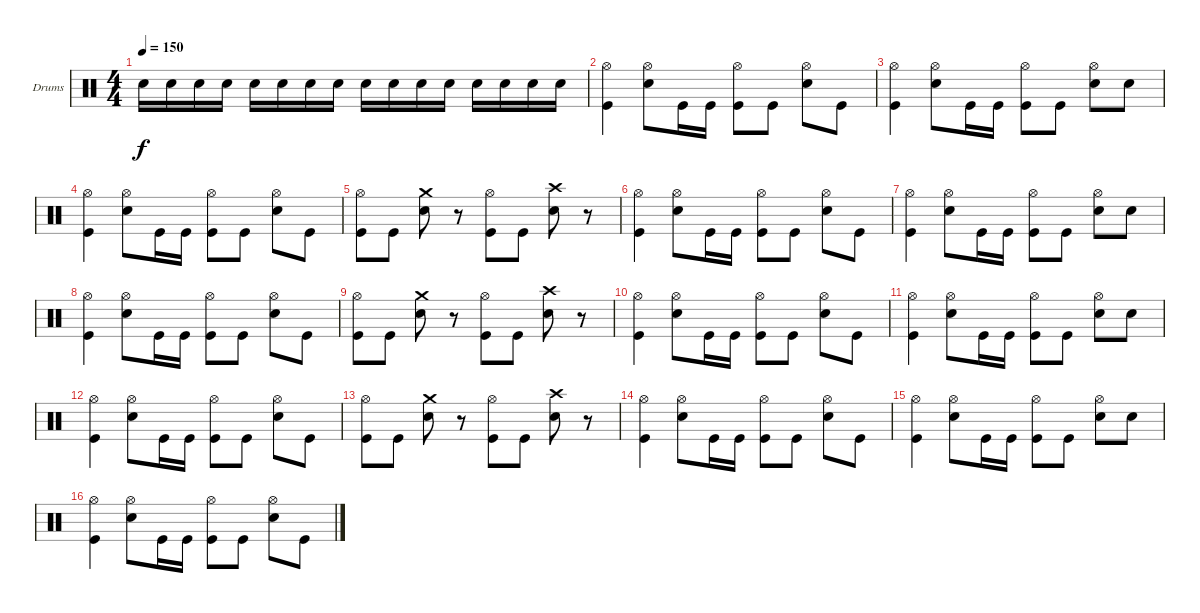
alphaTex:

\defaultSystemsLayout 4
\bracketExtendMode groupsimilarinstruments
\firstSystemTrackNameOrientation horizontal
\otherSystemsTrackNameOrientation horizontal
\track ("Drumkit" "Drums") {instrument percussion}
\staff {score}
\articulation defaults
\ts (4 4)
\tempo 150
\clef neutral
\ks c "Snare (hit) 2".16{dy f} "Snare (hit) 2".16 "Snare (hit) 2".16 "Snare (hit) 2".16 "Snare (hit) 2".16 "Snare (hit) 2".16 "Snare (hit) 2".16 "Snare (hit) 2".16 "Snare (hit) 2".16 "Snare (hit) 2".16 "Snare (hit) 2".16 "Snare (hit) 2".16 "Snare (hit) 2".16 "Snare (hit) 2".16 "Snare (hit) 2".16 "Snare (hit) 2".16
|
("Hi-Hat (open)" "Kick (hit)").4 ("Snare (hit) 2" "Hi-Hat (open)").8 "Kick (hit)".16 "Kick (hit)".16 ("Kick (hit)" "Hi-Hat (open)").8 "Kick (hit)".8 ("Snare (hit) 2" "Hi-Hat (open)").8 "Kick (hit)".8 |
("Hi-Hat (open)" "Kick (hit)").4 ("Snare (hit) 2" "Hi-Hat (open)").8 "Kick (hit)".16 "Kick (hit)".16 ("Kick (hit)" "Hi-Hat (open)").8 "Kick (hit)".8 ("Snare (hit) 2" "Hi-Hat (open)").8 "Snare (hit) 2".8 |
("Hi-Hat (open)" "Kick (hit)").4 ("Snare (hit) 2" "Hi-Hat (open)").8 "Kick (hit)".16 "Kick (hit)".16 ("Kick (hit)" "Hi-Hat (open)").8 "Kick (hit)".8 ("Snare (hit) 2" "Hi-Hat (open)").8 "Kick (hit)".8 |
("Kick (hit)" "Hi-Hat (open)").8 "Kick (hit)".8 ("Snare (hit) 2" "Crash medium (hit)").8 r.8 ("Kick (hit)" "Hi-Hat (open)").8 "Kick (hit)".8 ("Snare (hit) 2" "Crash high (hit)").8 r.8 |
("Hi-Hat (open)" "Kick (hit)").4 ("Snare (hit) 2" "Hi-Hat (open)").8 "Kick (hit)".16 "Kick (hit)".16 ("Kick (hit)" "Hi-Hat (open)").8 "Kick (hit)".8 ("Snare (hit) 2" "Hi-Hat (open)").8 "Kick (hit)".8 |
("Hi-Hat (open)" "Kick (hit)").4 ("Snare (hit) 2" "Hi-Hat (open)").8 "Kick (hit)".16 "Kick (hit)".16 ("Kick (hit)" "Hi-Hat (open)").8 "Kick (hit)".8 ("Snare (hit) 2" "Hi-Hat (open)").8 "Snare (hit) 2".8 |
("Hi-Hat (open)" "Kick (hit)").4 ("Snare (hit) 2" "Hi-Hat (open)").8 "Kick (hit)".16 "Kick (hit)".16 ("Kick (hit)" "Hi-Hat (open)").8 "Kick (hit)".8 ("Snare (hit) 2" "Hi-Hat (open)").8 "Kick (hit)".8 |
("Kick (hit)" "Hi-Hat (open)").8 "Kick (hit)".8 ("Snare (hit) 2" "Crash medium (hit)").8 r.8 ("Kick (hit)" "Hi-Hat (open)").8 "Kick (hit)".8 ("Snare (hit) 2" "Crash high (hit)").8 r.8 |
("Hi-Hat (open)" "Kick (hit)").4 ("Snare (hit) 2" "Hi-Hat (open)").8 "Kick (hit)".16 "Kick (hit)".16 ("Kick (hit)" "Hi-Hat (open)").8 "Kick (hit)".8 ("Snare (hit) 2" "Hi-Hat (open)").8 "Kick (hit)".8 |
("Hi-Hat (open)" "Kick (hit)").4 ("Snare (hit) 2" "Hi-Hat (open)").8 "Kick (hit)".16 "Kick (hit)".16 ("Kick (hit)" "Hi-Hat (open)").8 "Kick (hit)".8 ("Snare (hit) 2" "Hi-Hat (open)").8 "Snare (hit) 2".8 |
("Hi-Hat (open)" "Kick (hit)").4 ("Snare (hit) 2" "Hi-Hat (open)").8 "Kick (hit)".16 "Kick (hit)".16 ("Kick (hit)" "Hi-Hat (open)").8 "Kick (hit)".8 ("Snare (hit) 2" "Hi-Hat (open)").8 "Kick (hit)".8 |
("Kick (hit)" "Hi-Hat (open)").8 "Kick (hit)".8 ("Snare (hit) 2" "Crash medium (hit)").8 r.8 ("Kick (hit)" "Hi-Hat (open)").8 "Kick (hit)".8 ("Snare (hit) 2" "Crash high (hit)").8 r.8 |
("Hi-Hat (open)" "Kick (hit)").4 ("Snare (hit) 2" "Hi-Hat (open)").8 "Kick (hit)".16 "Kick (hit)".16 ("Kick (hit)" "Hi-Hat (open)").8 "Kick (hit)".8 ("Snare (hit) 2" "Hi-Hat (open)").8 "Kick (hit)".8 |
("Hi-Hat (open)" "Kick (hit)").4 ("Snare (hit) 2" "Hi-Hat (open)").8 "Kick (hit)".16 "Kick (hit)".16 ("Kick (hit)" "Hi-Hat (open)").8 "Kick (hit)".8 ("Snare (hit) 2" "Hi-Hat (open)").8 "Snare (hit) 2".8 |
("Hi-Hat (open)" "Kick (hit)").4 ("Snare (hit) 2" "Hi-Hat (open)").8 "Kick (hit)".16 "Kick (hit)".16 ("Kick (hit)" "Hi-Hat (open)").8 "Kick (hit)".8 ("Snare (hit) 2" "Hi-Hat (open)").8 "Kick (hit)".8
